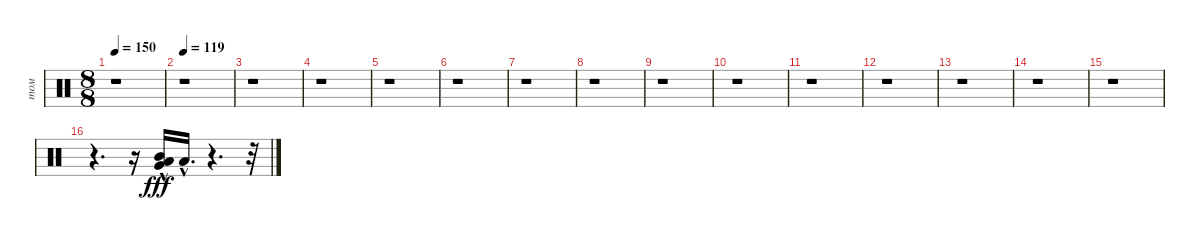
\track ("том" "том") {instrument percussion}
\staff {score}
\articulation defaults
\ts (8 8)
\tempo 150
\clef neutral
\ks c
r.1{dy f} |
\tempo 119
r.1 |
r.1 |
r.1 |
r.1 |
r.1 |
r.1 |
r.1 |
r.1 |
r.1 |
r.1 |
r.1 |
r.1 |
r.1 |
r.1 |
r.4{d} r.16 ("Mid Tom (hit)"{hac} "Low Tom (hit)"{hac} "Very Low Tom (hit)"{hac}).16{dy fff} "Low Floor Tom (hit)"{hac}.16{d} r.4{d} r.32
